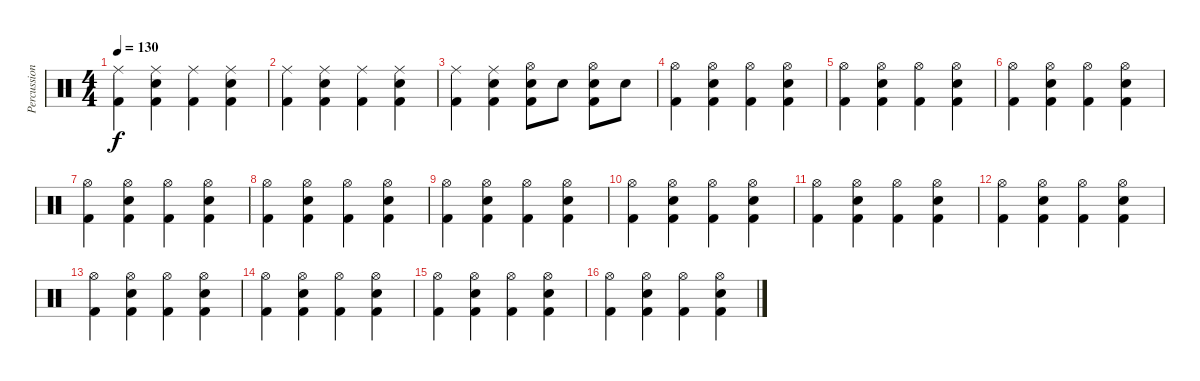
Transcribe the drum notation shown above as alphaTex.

\track ("Percussions" "Percussion") {instrument percussion}
\staff {score}
\articulation defaults
\ts (4 4)
\tempo 130
\clef neutral
\ks c
("Ride (middle)" "Kick (hit) 2").4{dy f} ("Ride (middle)" "Snare (hit) 2" "Kick (hit) 2").4 ("Ride (middle)" "Kick (hit) 2").4 ("Ride (middle)" "Snare (hit) 2" "Kick (hit) 2").4 |
("Ride (middle)" "Kick (hit) 2").4 ("Ride (middle)" "Snare (hit) 2" "Kick (hit) 2").4 ("Ride (middle)" "Kick (hit) 2").4 ("Ride (middle)" "Snare (hit) 2" "Kick (hit) 2").4 |
("Ride (middle)" "Kick (hit) 2").4 ("Ride (middle)" "Snare (hit) 2" "Kick (hit) 2").4 ("Hi-Hat (open)" "Snare (hit) 2" "Kick (hit) 2").8 "Snare (hit) 2".8 ("Hi-Hat (open)" "Snare (hit) 2" "Kick (hit) 2").8 "Snare (hit) 2".8 |
("Hi-Hat (open)" "Kick (hit) 2").4 ("Hi-Hat (open)" "Snare (hit) 2" "Kick (hit) 2").4 ("Hi-Hat (open)" "Kick (hit) 2").4 ("Hi-Hat (open)" "Snare (hit) 2" "Kick (hit) 2").4 |
("Hi-Hat (open)" "Kick (hit) 2").4 ("Hi-Hat (open)" "Snare (hit) 2" "Kick (hit) 2").4 ("Hi-Hat (open)" "Kick (hit) 2").4 ("Hi-Hat (open)" "Snare (hit) 2" "Kick (hit) 2").4 |
("Hi-Hat (open)" "Kick (hit) 2").4 ("Hi-Hat (open)" "Snare (hit) 2" "Kick (hit) 2").4 ("Hi-Hat (open)" "Kick (hit) 2").4 ("Hi-Hat (open)" "Snare (hit) 2" "Kick (hit) 2").4 |
("Hi-Hat (open)" "Kick (hit) 2").4 ("Hi-Hat (open)" "Snare (hit) 2" "Kick (hit) 2").4 ("Hi-Hat (open)" "Kick (hit) 2").4 ("Hi-Hat (open)" "Snare (hit) 2" "Kick (hit) 2").4 |
("Hi-Hat (open)" "Kick (hit) 2").4 ("Hi-Hat (open)" "Snare (hit) 2" "Kick (hit) 2").4 ("Hi-Hat (open)" "Kick (hit) 2").4 ("Hi-Hat (open)" "Snare (hit) 2" "Kick (hit) 2").4 |
("Hi-Hat (open)" "Kick (hit) 2").4 ("Hi-Hat (open)" "Snare (hit) 2" "Kick (hit) 2").4 ("Hi-Hat (open)" "Kick (hit) 2").4 ("Hi-Hat (open)" "Snare (hit) 2" "Kick (hit) 2").4 |
("Hi-Hat (open)" "Kick (hit) 2").4 ("Hi-Hat (open)" "Snare (hit) 2" "Kick (hit) 2").4 ("Hi-Hat (open)" "Kick (hit) 2").4 ("Hi-Hat (open)" "Snare (hit) 2" "Kick (hit) 2").4 |
("Hi-Hat (open)" "Kick (hit) 2").4 ("Hi-Hat (open)" "Snare (hit) 2" "Kick (hit) 2").4 ("Hi-Hat (open)" "Kick (hit) 2").4 ("Hi-Hat (open)" "Snare (hit) 2" "Kick (hit) 2").4 |
("Hi-Hat (open)" "Kick (hit) 2").4 ("Hi-Hat (open)" "Snare (hit) 2" "Kick (hit) 2").4 ("Hi-Hat (open)" "Kick (hit) 2").4 ("Hi-Hat (open)" "Snare (hit) 2" "Kick (hit) 2").4 |
("Hi-Hat (open)" "Kick (hit) 2").4 ("Hi-Hat (open)" "Snare (hit) 2" "Kick (hit) 2").4 ("Hi-Hat (open)" "Kick (hit) 2").4 ("Hi-Hat (open)" "Snare (hit) 2" "Kick (hit) 2").4 |
("Hi-Hat (open)" "Kick (hit) 2").4 ("Hi-Hat (open)" "Snare (hit) 2" "Kick (hit) 2").4 ("Hi-Hat (open)" "Kick (hit) 2").4 ("Hi-Hat (open)" "Snare (hit) 2" "Kick (hit) 2").4 |
("Hi-Hat (open)" "Kick (hit) 2").4 ("Hi-Hat (open)" "Snare (hit) 2" "Kick (hit) 2").4 ("Hi-Hat (open)" "Kick (hit) 2").4 ("Hi-Hat (open)" "Snare (hit) 2" "Kick (hit) 2").4 |
("Hi-Hat (open)" "Kick (hit) 2").4 ("Hi-Hat (open)" "Snare (hit) 2" "Kick (hit) 2").4 ("Hi-Hat (open)" "Kick (hit) 2").4 ("Hi-Hat (open)" "Snare (hit) 2" "Kick (hit) 2").4
